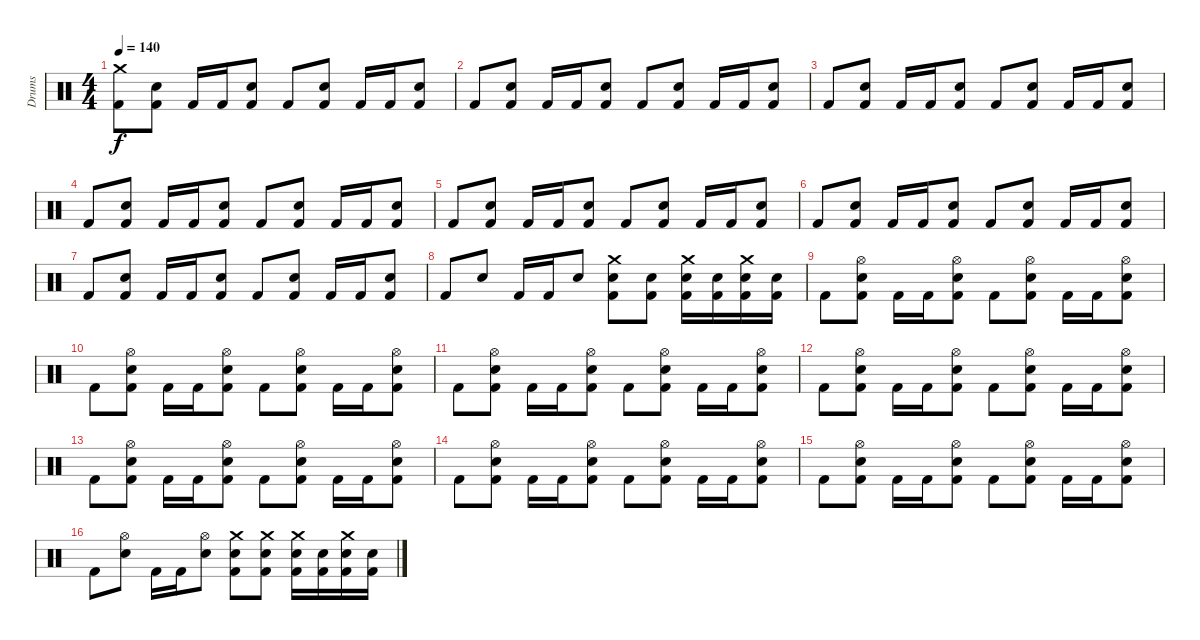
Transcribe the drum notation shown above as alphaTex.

\track ("Drums" "Drums") {instrument percussion}
\staff {score}
\articulation defaults
\ts (4 4)
\tempo 140
\clef neutral
\ks c
("Crash medium (hit)" "Kick (hit) 2").8{dy f} ("Electric Snare (hit)" "Kick (hit) 2").8 "Kick (hit) 2".16 "Kick (hit) 2".16 ("Electric Snare (hit)" "Kick (hit) 2").8 "Kick (hit) 2".8 ("Electric Snare (hit)" "Kick (hit) 2").8 "Kick (hit) 2".16 "Kick (hit) 2".16 ("Electric Snare (hit)" "Kick (hit) 2").8 |
"Kick (hit) 2".8 ("Electric Snare (hit)" "Kick (hit) 2").8 "Kick (hit) 2".16 "Kick (hit) 2".16 ("Electric Snare (hit)" "Kick (hit) 2").8 "Kick (hit) 2".8 ("Electric Snare (hit)" "Kick (hit) 2").8 "Kick (hit) 2".16 "Kick (hit) 2".16 ("Electric Snare (hit)" "Kick (hit) 2").8 |
"Kick (hit) 2".8 ("Electric Snare (hit)" "Kick (hit) 2").8 "Kick (hit) 2".16 "Kick (hit) 2".16 ("Electric Snare (hit)" "Kick (hit) 2").8 "Kick (hit) 2".8 ("Electric Snare (hit)" "Kick (hit) 2").8 "Kick (hit) 2".16 "Kick (hit) 2".16 ("Electric Snare (hit)" "Kick (hit) 2").8 |
"Kick (hit) 2".8 ("Electric Snare (hit)" "Kick (hit) 2").8 "Kick (hit) 2".16 "Kick (hit) 2".16 ("Electric Snare (hit)" "Kick (hit) 2").8 "Kick (hit) 2".8 ("Electric Snare (hit)" "Kick (hit) 2").8 "Kick (hit) 2".16 "Kick (hit) 2".16 ("Electric Snare (hit)" "Kick (hit) 2").8 |
"Kick (hit) 2".8 ("Electric Snare (hit)" "Kick (hit) 2").8 "Kick (hit) 2".16 "Kick (hit) 2".16 ("Electric Snare (hit)" "Kick (hit) 2").8 "Kick (hit) 2".8 ("Electric Snare (hit)" "Kick (hit) 2").8 "Kick (hit) 2".16 "Kick (hit) 2".16 ("Electric Snare (hit)" "Kick (hit) 2").8 |
"Kick (hit) 2".8 ("Electric Snare (hit)" "Kick (hit) 2").8 "Kick (hit) 2".16 "Kick (hit) 2".16 ("Electric Snare (hit)" "Kick (hit) 2").8 "Kick (hit) 2".8 ("Electric Snare (hit)" "Kick (hit) 2").8 "Kick (hit) 2".16 "Kick (hit) 2".16 ("Electric Snare (hit)" "Kick (hit) 2").8 |
"Kick (hit) 2".8 ("Electric Snare (hit)" "Kick (hit) 2").8 "Kick (hit) 2".16 "Kick (hit) 2".16 ("Electric Snare (hit)" "Kick (hit) 2").8 "Kick (hit) 2".8 ("Electric Snare (hit)" "Kick (hit) 2").8 "Kick (hit) 2".16 "Kick (hit) 2".16 ("Electric Snare (hit)" "Kick (hit) 2").8 |
"Kick (hit) 2".8 "Electric Snare (hit)".8 "Kick (hit) 2".16 "Kick (hit) 2".16 "Electric Snare (hit)".8 ("Crash medium (hit)" "Electric Snare (hit)" "Kick (hit) 2").8 ("Electric Snare (hit)" "Kick (hit) 2").8 ("Crash medium (hit)" "Electric Snare (hit)" "Kick (hit) 2").16 ("Electric Snare (hit)" "Kick (hit) 2").16 ("Crash medium (hit)" "Electric Snare (hit)" "Kick (hit) 2").16 ("Electric Snare (hit)" "Kick (hit) 2").16 |
"Kick (hit) 2".8 ("Hi-Hat (open)" "Electric Snare (hit)" "Kick (hit) 2").8 "Kick (hit) 2".16 "Kick (hit) 2".16 ("Hi-Hat (open)" "Electric Snare (hit)" "Kick (hit) 2").8 "Kick (hit) 2".8 ("Hi-Hat (open)" "Electric Snare (hit)" "Kick (hit) 2").8 "Kick (hit) 2".16 "Kick (hit) 2".16 ("Hi-Hat (open)" "Electric Snare (hit)" "Kick (hit) 2").8 |
"Kick (hit) 2".8 ("Hi-Hat (open)" "Electric Snare (hit)" "Kick (hit) 2").8 "Kick (hit) 2".16 "Kick (hit) 2".16 ("Hi-Hat (open)" "Electric Snare (hit)" "Kick (hit) 2").8 "Kick (hit) 2".8 ("Hi-Hat (open)" "Electric Snare (hit)" "Kick (hit) 2").8 "Kick (hit) 2".16 "Kick (hit) 2".16 ("Hi-Hat (open)" "Electric Snare (hit)" "Kick (hit) 2").8 |
"Kick (hit) 2".8 ("Hi-Hat (open)" "Electric Snare (hit)" "Kick (hit) 2").8 "Kick (hit) 2".16 "Kick (hit) 2".16 ("Hi-Hat (open)" "Electric Snare (hit)" "Kick (hit) 2").8 "Kick (hit) 2".8 ("Hi-Hat (open)" "Electric Snare (hit)" "Kick (hit) 2").8 "Kick (hit) 2".16 "Kick (hit) 2".16 ("Hi-Hat (open)" "Electric Snare (hit)" "Kick (hit) 2").8 |
"Kick (hit) 2".8 ("Hi-Hat (open)" "Electric Snare (hit)" "Kick (hit) 2").8 "Kick (hit) 2".16 "Kick (hit) 2".16 ("Hi-Hat (open)" "Electric Snare (hit)" "Kick (hit) 2").8 "Kick (hit) 2".8 ("Hi-Hat (open)" "Electric Snare (hit)" "Kick (hit) 2").8 "Kick (hit) 2".16 "Kick (hit) 2".16 ("Hi-Hat (open)" "Electric Snare (hit)" "Kick (hit) 2").8 |
"Kick (hit) 2".8 ("Hi-Hat (open)" "Electric Snare (hit)" "Kick (hit) 2").8 "Kick (hit) 2".16 "Kick (hit) 2".16 ("Hi-Hat (open)" "Electric Snare (hit)" "Kick (hit) 2").8 "Kick (hit) 2".8 ("Hi-Hat (open)" "Electric Snare (hit)" "Kick (hit) 2").8 "Kick (hit) 2".16 "Kick (hit) 2".16 ("Hi-Hat (open)" "Electric Snare (hit)" "Kick (hit) 2").8 |
"Kick (hit) 2".8 ("Hi-Hat (open)" "Electric Snare (hit)" "Kick (hit) 2").8 "Kick (hit) 2".16 "Kick (hit) 2".16 ("Hi-Hat (open)" "Electric Snare (hit)" "Kick (hit) 2").8 "Kick (hit) 2".8 ("Hi-Hat (open)" "Electric Snare (hit)" "Kick (hit) 2").8 "Kick (hit) 2".16 "Kick (hit) 2".16 ("Hi-Hat (open)" "Electric Snare (hit)" "Kick (hit) 2").8 |
"Kick (hit) 2".8 ("Hi-Hat (open)" "Electric Snare (hit)" "Kick (hit) 2").8 "Kick (hit) 2".16 "Kick (hit) 2".16 ("Hi-Hat (open)" "Electric Snare (hit)" "Kick (hit) 2").8 "Kick (hit) 2".8 ("Hi-Hat (open)" "Electric Snare (hit)" "Kick (hit) 2").8 "Kick (hit) 2".16 "Kick (hit) 2".16 ("Hi-Hat (open)" "Electric Snare (hit)" "Kick (hit) 2").8 |
"Kick (hit) 2".8 ("Hi-Hat (open)" "Electric Snare (hit)").8 "Kick (hit) 2".16 "Kick (hit) 2".16 ("Hi-Hat (open)" "Electric Snare (hit)").8 ("Crash medium (hit)" "Electric Snare (hit)" "Kick (hit) 2").8 ("Crash medium (hit)" "Electric Snare (hit)" "Kick (hit) 2").8 ("Crash medium (hit)" "Electric Snare (hit)" "Kick (hit) 2").16 ("Electric Snare (hit)" "Kick (hit) 2").16 ("Crash medium (hit)" "Electric Snare (hit)" "Kick (hit) 2").16 ("Electric Snare (hit)" "Kick (hit) 2").16
